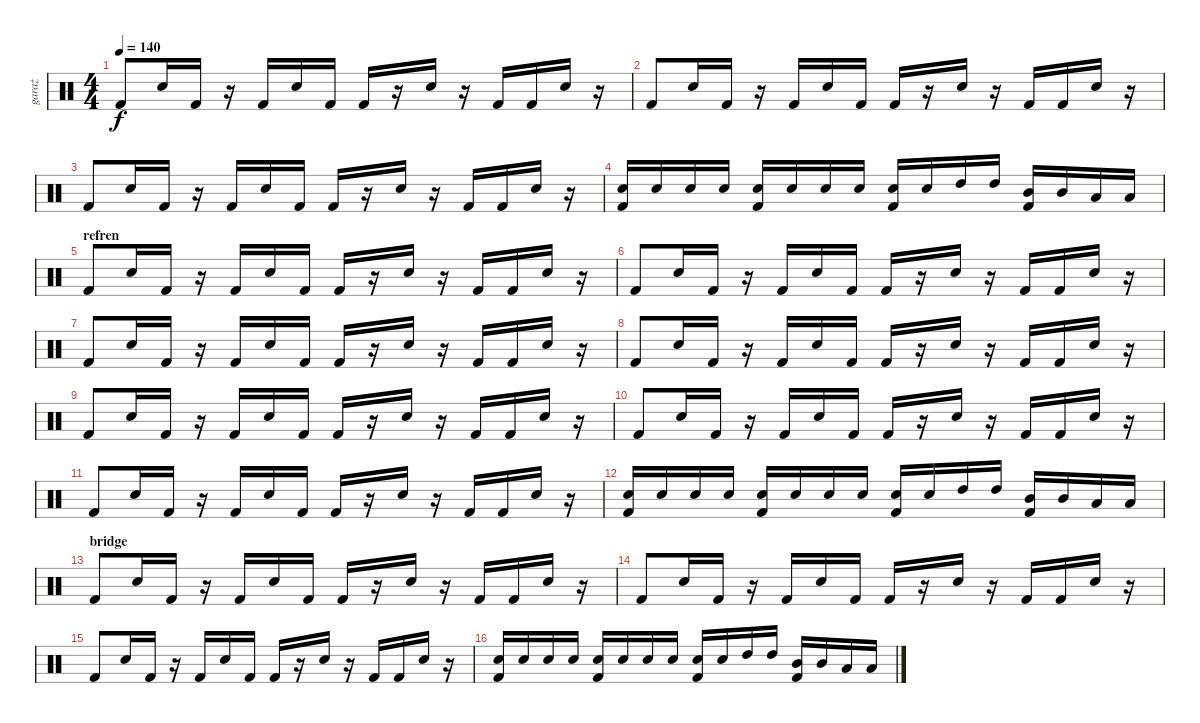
\track ("garaż" "garaż") {instrument percussion}
\staff {score}
\articulation defaults
\ts (4 4)
\tempo 140
\clef neutral
\ks c "Kick (hit) 2".8{dy f} "Snare (hit) 2".16 "Kick (hit) 2".16
r.16 "Kick (hit) 2".16 "Snare (hit) 2".16 "Kick (hit) 2".16 "Kick (hit) 2".16 r.16 "Snare (hit) 2".16 r.16 "Kick (hit) 2".16 "Kick (hit) 2".16 "Snare (hit) 2".16 r.16 |
"Kick (hit) 2".8 "Snare (hit) 2".16 "Kick (hit) 2".16 r.16 "Kick (hit) 2".16 "Snare (hit) 2".16 "Kick (hit) 2".16 "Kick (hit) 2".16 r.16 "Snare (hit) 2".16 r.16 "Kick (hit) 2".16 "Kick (hit) 2".16 "Snare (hit) 2".16 r.16 |
"Kick (hit) 2".8 "Snare (hit) 2".16 "Kick (hit) 2".16 r.16 "Kick (hit) 2".16 "Snare (hit) 2".16 "Kick (hit) 2".16 "Kick (hit) 2".16 r.16 "Snare (hit) 2".16 r.16 "Kick (hit) 2".16 "Kick (hit) 2".16 "Snare (hit) 2".16 r.16 |
("Snare (hit) 2" "Kick (hit) 2").16 "Snare (hit) 2".16 "Snare (hit) 2".16 "Snare (hit) 2".16 ("Snare (hit) 2" "Kick (hit) 2").16 "Snare (hit) 2".16 "Snare (hit) 2".16 "Snare (hit) 2".16 ("Snare (hit) 2" "Kick (hit) 2").16 "Snare (hit) 2".16 "High Tom (hit)".16 "High Tom (hit)".16 ("Mid Tom (hit)" "Kick (hit) 2").16 "Mid Tom (hit)".16 "Low Tom (hit)".16 "Low Tom (hit)".16 |
\section ("" "refren")
"Kick (hit) 2".8 "Snare (hit) 2".16 "Kick (hit) 2".16 r.16 "Kick (hit) 2".16 "Snare (hit) 2".16 "Kick (hit) 2".16 "Kick (hit) 2".16 r.16 "Snare (hit) 2".16 r.16 "Kick (hit) 2".16 "Kick (hit) 2".16 "Snare (hit) 2".16 r.16 |
"Kick (hit) 2".8 "Snare (hit) 2".16 "Kick (hit) 2".16 r.16 "Kick (hit) 2".16 "Snare (hit) 2".16 "Kick (hit) 2".16 "Kick (hit) 2".16 r.16 "Snare (hit) 2".16 r.16 "Kick (hit) 2".16 "Kick (hit) 2".16 "Snare (hit) 2".16 r.16 |
"Kick (hit) 2".8 "Snare (hit) 2".16 "Kick (hit) 2".16 r.16 "Kick (hit) 2".16 "Snare (hit) 2".16 "Kick (hit) 2".16 "Kick (hit) 2".16 r.16 "Snare (hit) 2".16 r.16 "Kick (hit) 2".16 "Kick (hit) 2".16 "Snare (hit) 2".16 r.16 |
"Kick (hit) 2".8 "Snare (hit) 2".16 "Kick (hit) 2".16 r.16 "Kick (hit) 2".16 "Snare (hit) 2".16 "Kick (hit) 2".16 "Kick (hit) 2".16 r.16 "Snare (hit) 2".16 r.16 "Kick (hit) 2".16 "Kick (hit) 2".16 "Snare (hit) 2".16 r.16 |
"Kick (hit) 2".8 "Snare (hit) 2".16 "Kick (hit) 2".16 r.16 "Kick (hit) 2".16 "Snare (hit) 2".16 "Kick (hit) 2".16 "Kick (hit) 2".16 r.16 "Snare (hit) 2".16 r.16 "Kick (hit) 2".16 "Kick (hit) 2".16 "Snare (hit) 2".16 r.16 |
"Kick (hit) 2".8 "Snare (hit) 2".16 "Kick (hit) 2".16 r.16 "Kick (hit) 2".16 "Snare (hit) 2".16 "Kick (hit) 2".16 "Kick (hit) 2".16 r.16 "Snare (hit) 2".16 r.16 "Kick (hit) 2".16 "Kick (hit) 2".16 "Snare (hit) 2".16 r.16 |
"Kick (hit) 2".8 "Snare (hit) 2".16 "Kick (hit) 2".16 r.16 "Kick (hit) 2".16 "Snare (hit) 2".16 "Kick (hit) 2".16 "Kick (hit) 2".16 r.16 "Snare (hit) 2".16 r.16 "Kick (hit) 2".16 "Kick (hit) 2".16 "Snare (hit) 2".16 r.16 |
("Snare (hit) 2" "Kick (hit) 2").16 "Snare (hit) 2".16 "Snare (hit) 2".16 "Snare (hit) 2".16 ("Snare (hit) 2" "Kick (hit) 2").16 "Snare (hit) 2".16 "Snare (hit) 2".16 "Snare (hit) 2".16 ("Snare (hit) 2" "Kick (hit) 2").16 "Snare (hit) 2".16 "High Tom (hit)".16 "High Tom (hit)".16 ("Mid Tom (hit)" "Kick (hit) 2").16 "Mid Tom (hit)".16 "Low Tom (hit)".16 "Low Tom (hit)".16 |
\section ("" "bridge")
"Kick (hit) 2".8 "Snare (hit) 2".16 "Kick (hit) 2".16 r.16 "Kick (hit) 2".16 "Snare (hit) 2".16 "Kick (hit) 2".16 "Kick (hit) 2".16 r.16 "Snare (hit) 2".16 r.16 "Kick (hit) 2".16 "Kick (hit) 2".16 "Snare (hit) 2".16 r.16 |
"Kick (hit) 2".8 "Snare (hit) 2".16 "Kick (hit) 2".16 r.16 "Kick (hit) 2".16 "Snare (hit) 2".16 "Kick (hit) 2".16 "Kick (hit) 2".16 r.16 "Snare (hit) 2".16 r.16 "Kick (hit) 2".16 "Kick (hit) 2".16 "Snare (hit) 2".16 r.16 |
"Kick (hit) 2".8 "Snare (hit) 2".16 "Kick (hit) 2".16 r.16 "Kick (hit) 2".16 "Snare (hit) 2".16 "Kick (hit) 2".16 "Kick (hit) 2".16 r.16 "Snare (hit) 2".16 r.16 "Kick (hit) 2".16 "Kick (hit) 2".16 "Snare (hit) 2".16 r.16 |
("Snare (hit) 2" "Kick (hit) 2").16 "Snare (hit) 2".16 "Snare (hit) 2".16 "Snare (hit) 2".16 ("Snare (hit) 2" "Kick (hit) 2").16 "Snare (hit) 2".16 "Snare (hit) 2".16 "Snare (hit) 2".16 ("Snare (hit) 2" "Kick (hit) 2").16 "Snare (hit) 2".16 "High Tom (hit)".16 "High Tom (hit)".16 ("Mid Tom (hit)" "Kick (hit) 2").16 "Mid Tom (hit)".16 "Low Tom (hit)".16 "Low Tom (hit)".16
